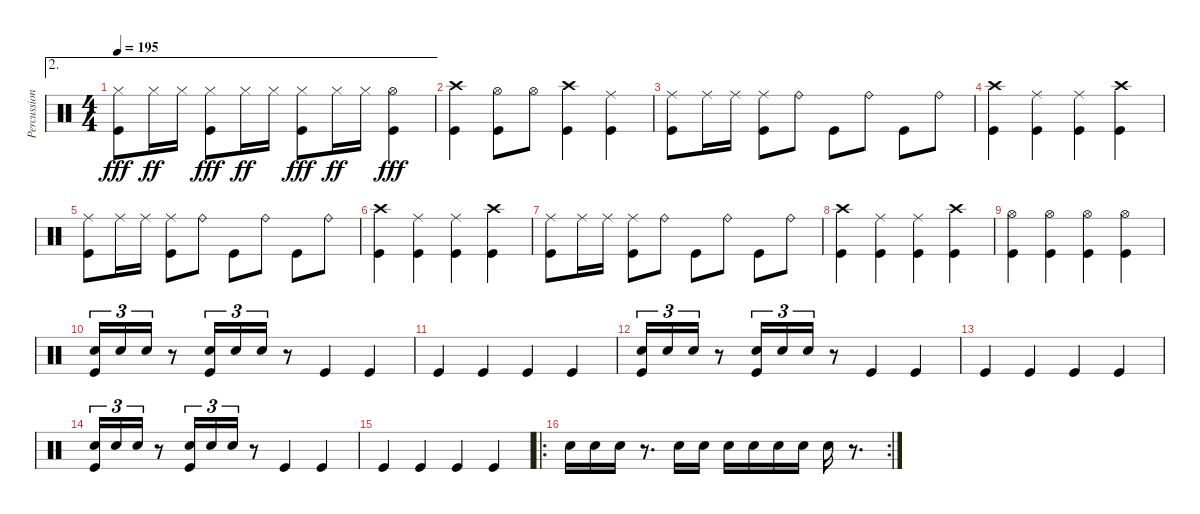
\track ("Percussions" "Percussion") {instrument percussion}
\staff {score}
\articulation defaults
\ae 2
\ts (4 4)
\tempo 195
\clef neutral
\ks c
("Hi-Hat (closed)" "Kick (hit)").8{dy fff} "Hi-Hat (closed)".16{dy ff} "Hi-Hat (closed)".16 ("Hi-Hat (closed)" "Kick (hit)").8{dy fff} "Hi-Hat (closed)".16{dy ff} "Hi-Hat (closed)".16 ("Hi-Hat (closed)" "Kick (hit)").8{dy fff} "Hi-Hat (closed)".16{dy ff} "Hi-Hat (closed)".16 ("Hi-Hat (open)" "Kick (hit)").4{dy fff} |
("Crash high (hit)" "Kick (hit)").4 ("Hi-Hat (open)" "Kick (hit)").8 "Hi-Hat (open)".8 ("Crash high (hit)" "Kick (hit)").4 ("Ride (middle)" "Kick (hit)").4 |
("Ride (middle)" "Kick (hit)").8 "Ride (middle)".16 "Ride (middle)".16 ("Ride (middle)" "Kick (hit)").8 "Ride (bell)".8 "Kick (hit)".8 "Ride (bell)".8 "Kick (hit)".8 "Ride (bell)".8 |
("Crash high (hit)" "Kick (hit)").4 ("Ride (middle)" "Kick (hit)").4 ("Ride (middle)" "Kick (hit)").4 ("Crash high (hit)" "Kick (hit)").4 |
("Ride (middle)" "Kick (hit)").8 "Ride (middle)".16 "Ride (middle)".16 ("Ride (middle)" "Kick (hit)").8 "Ride (bell)".8 "Kick (hit)".8 "Ride (bell)".8 "Kick (hit)".8 "Ride (bell)".8 |
("Crash high (hit)" "Kick (hit)").4 ("Ride (middle)" "Kick (hit)").4 ("Ride (middle)" "Kick (hit)").4 ("Crash high (hit)" "Kick (hit)").4 |
("Ride (middle)" "Kick (hit)").8 "Ride (middle)".16 "Ride (middle)".16 ("Ride (middle)" "Kick (hit)").8 "Ride (bell)".8 "Kick (hit)".8 "Ride (bell)".8 "Kick (hit)".8 "Ride (bell)".8 |
("Crash high (hit)" "Kick (hit)").4 ("Ride (middle)" "Kick (hit)").4 ("Ride (middle)" "Kick (hit)").4 ("Crash high (hit)" "Kick (hit)").4 |
("Hi-Hat (open)" "Kick (hit)").4 ("Hi-Hat (open)" "Kick (hit)").4 ("Hi-Hat (open)" "Kick (hit)").4 ("Hi-Hat (open)" "Kick (hit)").4 |
("Electric Snare (hit)" "Kick (hit)").16{tu (3 2)} "Electric Snare (hit)".16{tu (3 2)} "Electric Snare (hit)".16{tu (3 2)} r.8 ("Electric Snare (hit)" "Kick (hit)").16{tu (3 2)} "Electric Snare (hit)".16{tu (3 2)} "Electric Snare (hit)".16{tu (3 2)} r.8 "Kick (hit)".4 "Kick (hit)".4 |
"Kick (hit)".4 "Kick (hit)".4 "Kick (hit)".4 "Kick (hit)".4 |
("Electric Snare (hit)" "Kick (hit)").16{tu (3 2)} "Electric Snare (hit)".16{tu (3 2)} "Electric Snare (hit)".16{tu (3 2)} r.8 ("Electric Snare (hit)" "Kick (hit)").16{tu (3 2)} "Electric Snare (hit)".16{tu (3 2)} "Electric Snare (hit)".16{tu (3 2)} r.8 "Kick (hit)".4 "Kick (hit)".4 |
"Kick (hit)".4 "Kick (hit)".4 "Kick (hit)".4 "Kick (hit)".4 |
("Electric Snare (hit)" "Kick (hit)").16{tu (3 2)} "Electric Snare (hit)".16{tu (3 2)} "Electric Snare (hit)".16{tu (3 2)} r.8 ("Electric Snare (hit)" "Kick (hit)").16{tu (3 2)} "Electric Snare (hit)".16{tu (3 2)} "Electric Snare (hit)".16{tu (3 2)} r.8 "Kick (hit)".4 "Kick (hit)".4 |
"Kick (hit)".4 "Kick (hit)".4 "Kick (hit)".4 "Kick (hit)".4 |
\ro
\rc 2 "Electric Snare (hit)".16 "Electric Snare (hit)".16 "Electric Snare (hit)".16
r.8{d} "Electric Snare (hit)".16 "Electric Snare (hit)".16 "Electric Snare (hit)".16 "Electric Snare (hit)".16 "Electric Snare (hit)".16 "Electric Snare (hit)".16 "Electric Snare (hit)".16 r.8{d}
